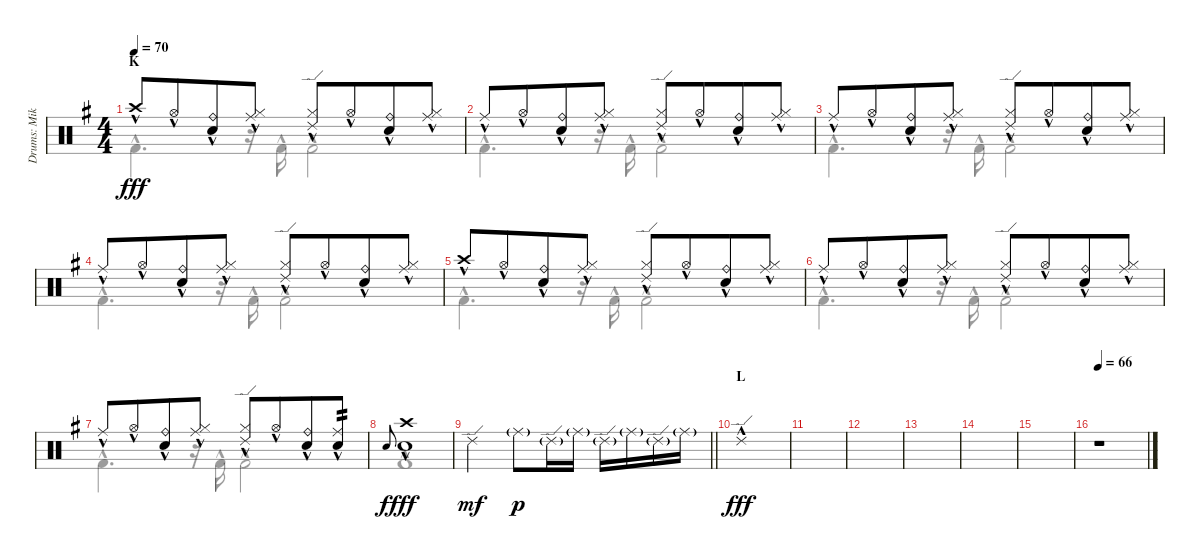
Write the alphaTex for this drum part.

\track ("Drums: Mike" "Drums: Mik") {instrument percussion}
\staff {score}
\articulation defaults
\voice
\ts (4 4)
\section ("" "K")
\tempo 70
\clef neutral
\ks g "Crash high (hit)"{hac}.8{dy fff} "Hi-Hat (open)"{hac}.8{beam merge}
("Ride (bell)"{hac} "Snare (hit) 2"{hac}).8 ("Ride (middle)"{hac} "Hi-Hat (closed)"{hac}).8 ("Ride (edge) 2"{hac} "Hi-Hat (closed)"{hac}).8 "Hi-Hat (open)"{hac}.8{beam merge} ("Ride (bell)"{hac} "Snare (hit) 2"{hac}).8 ("Ride (middle)"{hac} "Hi-Hat (closed)"{hac}).8 |
"Ride (middle)"{hac}.8 "Hi-Hat (open)"{hac}.8{beam merge} ("Ride (bell)"{hac} "Snare (hit) 2"{hac}).8 ("Ride (middle)"{hac} "Hi-Hat (closed)"{hac}).8 ("Ride (edge) 2"{hac} "Hi-Hat (closed)"{hac}).8 "Hi-Hat (open)"{hac}.8{beam merge} ("Ride (bell)"{hac} "Snare (hit) 2"{hac}).8 ("Ride (middle)"{hac} "Hi-Hat (closed)"{hac}).8 |
"Ride (middle)"{hac}.8 "Hi-Hat (open)"{hac}.8{beam merge} ("Ride (bell)"{hac} "Snare (hit) 2"{hac}).8 ("Ride (middle)"{hac} "Hi-Hat (closed)"{hac}).8 ("Ride (edge) 2"{hac} "Hi-Hat (closed)"{hac}).8 "Hi-Hat (open)"{hac}.8{beam merge} ("Ride (bell)"{hac} "Snare (hit) 2"{hac}).8 ("Ride (middle)"{hac} "Hi-Hat (closed)"{hac}).8 |
"Ride (middle)"{hac}.8 "Hi-Hat (open)"{hac}.8{beam merge} ("Ride (bell)"{hac} "Snare (hit) 2"{hac}).8 ("Ride (middle)"{hac} "Hi-Hat (closed)"{hac}).8 ("Ride (edge) 2"{hac} "Hi-Hat (closed)"{hac}).8 "Hi-Hat (open)"{hac}.8{beam merge} ("Ride (bell)"{hac} "Snare (hit) 2"{hac}).8 ("Ride (middle)"{hac} "Hi-Hat (closed)"{hac}).8 |
"Crash high (hit)"{hac}.8 "Hi-Hat (open)"{hac}.8{beam merge} ("Ride (bell)"{hac} "Snare (hit) 2"{hac}).8 ("Ride (middle)"{hac} "Hi-Hat (closed)"{hac}).8 ("Ride (edge) 2"{hac} "Hi-Hat (closed)"{hac}).8 "Hi-Hat (open)"{hac}.8{beam merge} ("Ride (bell)"{hac} "Snare (hit) 2"{hac}).8 ("Ride (middle)"{hac} "Hi-Hat (closed)"{hac}).8 |
"Ride (middle)"{hac}.8 "Hi-Hat (open)"{hac}.8{beam merge} ("Ride (bell)"{hac} "Snare (hit) 2"{hac}).8 ("Ride (middle)"{hac} "Hi-Hat (closed)"{hac}).8 ("Ride (edge) 2"{hac} "Hi-Hat (closed)"{hac}).8 "Hi-Hat (open)"{hac}.8{beam merge} ("Ride (bell)"{hac} "Snare (hit) 2"{hac}).8 ("Ride (middle)"{hac} "Hi-Hat (closed)"{hac}).8 |
"Ride (middle)"{hac}.8 "Hi-Hat (open)"{hac}.8{beam merge} ("Ride (bell)"{hac} "Snare (hit) 2"{hac}).8 ("Ride (middle)"{hac} "Hi-Hat (closed)"{hac}).8 ("Ride (edge) 2"{hac} "Hi-Hat (closed)"{hac}).8 "Hi-Hat (open)"{hac}.8{beam merge} ("Ride (bell)"{hac} "Snare (hit) 2"{hac}).8 ("Ride (middle)"{hac} "Electric Snare (hit)"{hac}).8{tp 2} |
"Electric Snare (hit)".8{gr onbeat dy f} ("Crash high (hit)"{hac} "Snare (hit) 2"{hac}).1{dy fff} |
\barLineRight lightlight "Ride (edge) 2".2{dy mf} "Ride (middle)"{g}.8{dy p} "Ride (edge) 2"{g}.16 "Ride (middle)"{g}.16 "Ride (edge) 2"{g}.16 "Ride (middle)"{g}.16 "Ride (edge) 2"{g}.16 "Ride (middle)"{g}.16
|
\section ("" "L")
"Ride (edge) 2"{hac}.1{dy fff} |
|
|
|
|
|
\tempo 66
r.1
\voice
\clef neutral
\ottava regular
\simile none
\ks g "Kick (hit) 2"{hac}.4{d dy fff}
r.16 "Kick (hit) 2"{hac}.16 "Kick (hit) 2"{hac}.2 |
"Kick (hit) 2"{hac}.4{d} r.16 "Kick (hit) 2"{hac}.16 "Kick (hit) 2"{hac}.2 |
"Kick (hit) 2"{hac}.4{d} r.16 "Kick (hit) 2"{hac}.16 "Kick (hit) 2"{hac}.2 |
"Kick (hit) 2"{hac}.4{d} r.16 "Kick (hit) 2"{hac}.16 "Kick (hit) 2"{hac}.2 |
"Kick (hit) 2"{hac}.4{d} r.16 "Kick (hit) 2"{hac}.16 "Kick (hit) 2"{hac}.2 |
"Kick (hit) 2"{hac}.4{d} r.16 "Kick (hit) 2"{hac}.16 "Kick (hit) 2"{hac}.2 |
"Kick (hit) 2"{hac}.4{d} r.16 "Kick (hit) 2"{hac}.16 "Kick (hit) 2"{hac}.2 |
"Kick (hit) 2"{hac}.1 |
\barLineRight lightlight
|
|
|
|
|
|
|
